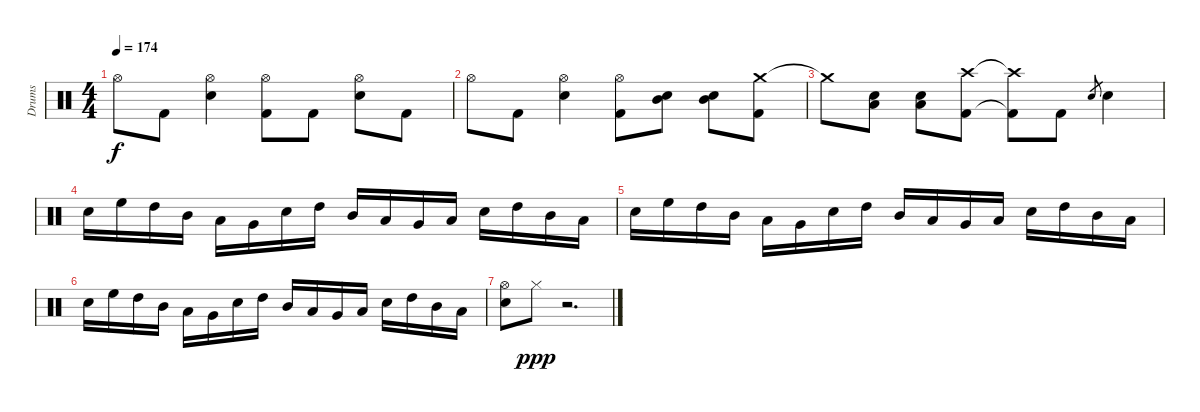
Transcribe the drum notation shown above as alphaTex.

\track ("Drums" "Drums") {instrument percussion}
\staff {score}
\articulation defaults
\ts (4 4)
\tempo 174
\clef neutral
\ks c "Hi-Hat (open)".8{dy f} "Kick (hit) 2".8
("Hi-Hat (open)" "Electric Snare (hit)").4 ("Hi-Hat (open)" "Kick (hit) 2").8 "Kick (hit) 2".8 ("Hi-Hat (open)" "Electric Snare (hit)").8 "Kick (hit) 2".8 |
"Hi-Hat (open)".8 "Kick (hit) 2".8 ("Hi-Hat (open)" "Electric Snare (hit)").4 ("Hi-Hat (open)" "Kick (hit) 2").8 ("Mid Tom (hit)" "Electric Snare (hit)").8 ("Mid Tom (hit)" "Electric Snare (hit)").8 ("Crash medium (hit)" "Kick (hit) 2").8 |
"Crash medium (hit)"{t}.8 ("Low Tom (hit)" "Electric Snare (hit)").8 ("Low Tom (hit)" "Electric Snare (hit)").8 ("Crash high (hit)" "Kick (hit) 2").8 ("Crash high (hit)"{t} "Kick (hit) 2"{t}).8 "Kick (hit) 2".8 "Electric Snare (hit)".8{gr} "Electric Snare (hit)".4 |
"Electric Snare (hit)".16 "High Floor Tom (hit)".16 "High Tom (hit)".16 "Mid Tom (hit)".16 "Low Tom (hit)".16 "Very Low Tom (hit)".16 "Electric Snare (hit)".16 "High Tom (hit)".16 "Mid Tom (hit)".16 "Low Tom (hit)".16 "Very Low Tom (hit)".16 "Low Floor Tom (hit)".16 "Electric Snare (hit)".16 "High Tom (hit)".16 "Mid Tom (hit)".16 "Low Tom (hit)".16 |
"Electric Snare (hit)".16 "High Floor Tom (hit)".16 "High Tom (hit)".16 "Mid Tom (hit)".16 "Low Tom (hit)".16 "Very Low Tom (hit)".16 "Electric Snare (hit)".16 "High Tom (hit)".16 "Mid Tom (hit)".16 "Low Tom (hit)".16 "Very Low Tom (hit)".16 "Low Floor Tom (hit)".16 "Electric Snare (hit)".16 "High Tom (hit)".16 "Mid Tom (hit)".16 "Low Tom (hit)".16 |
"Electric Snare (hit)".16 "High Floor Tom (hit)".16 "High Tom (hit)".16 "Mid Tom (hit)".16 "Low Tom (hit)".16 "Very Low Tom (hit)".16 "Electric Snare (hit)".16 "High Tom (hit)".16 "Mid Tom (hit)".16 "Low Tom (hit)".16 "Very Low Tom (hit)".16 "Low Floor Tom (hit)".16 "Electric Snare (hit)".16 "High Tom (hit)".16 "Mid Tom (hit)".16 "Low Tom (hit)".16 |
("Hi-Hat (open)" "Electric Snare (hit)").8 "Hi-Hat (closed)".8{dy ppp} r.2{d}
